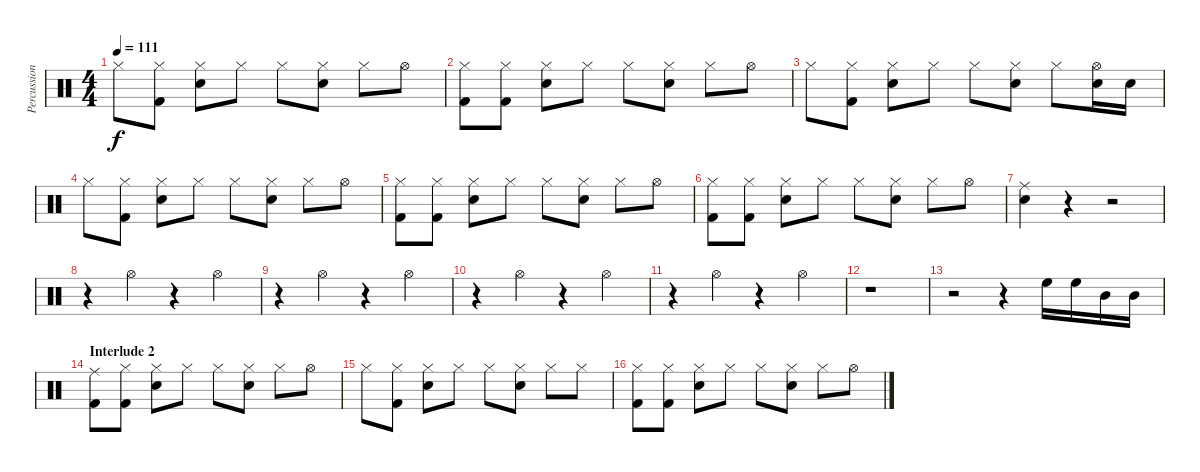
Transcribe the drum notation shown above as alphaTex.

\track ("Percussions" "Percussion") {instrument percussion}
\staff {score}
\articulation defaults
\ts (4 4)
\tempo 111
\clef neutral
\ks c "Hi-Hat (closed)".8{dy f}
("Hi-Hat (closed)" "Kick (hit) 2").8 ("Hi-Hat (closed)" "Snare (hit) 2").8 "Hi-Hat (closed)".8 "Hi-Hat (closed)".8 ("Hi-Hat (closed)" "Snare (hit) 2").8 "Hi-Hat (closed)".8 "Hi-Hat (open)".8 |
("Hi-Hat (closed)" "Kick (hit) 2").8 ("Hi-Hat (closed)" "Kick (hit) 2").8 ("Hi-Hat (closed)" "Snare (hit) 2").8 "Hi-Hat (closed)".8 "Hi-Hat (closed)".8 ("Hi-Hat (closed)" "Snare (hit) 2").8 "Hi-Hat (closed)".8 "Hi-Hat (open)".8 |
"Hi-Hat (closed)".8 ("Hi-Hat (closed)" "Kick (hit) 2").8 ("Hi-Hat (closed)" "Snare (hit) 2").8 "Hi-Hat (closed)".8 "Hi-Hat (closed)".8 ("Hi-Hat (closed)" "Snare (hit) 2").8 "Hi-Hat (closed)".8 ("Hi-Hat (open)" "Snare (hit) 2").16 "Snare (hit) 2".16 |
"Hi-Hat (closed)".8 ("Hi-Hat (closed)" "Kick (hit) 2").8 ("Hi-Hat (closed)" "Snare (hit) 2").8 "Hi-Hat (closed)".8 "Hi-Hat (closed)".8 ("Hi-Hat (closed)" "Snare (hit) 2").8 "Hi-Hat (closed)".8 "Hi-Hat (open)".8 |
("Hi-Hat (closed)" "Kick (hit) 2").8 ("Hi-Hat (closed)" "Kick (hit) 2").8 ("Hi-Hat (closed)" "Snare (hit) 2").8 "Hi-Hat (closed)".8 "Hi-Hat (closed)".8 ("Hi-Hat (closed)" "Snare (hit) 2").8 "Hi-Hat (closed)".8 "Hi-Hat (open)".8 |
("Hi-Hat (closed)" "Kick (hit) 2").8 ("Hi-Hat (closed)" "Kick (hit) 2").8 ("Hi-Hat (closed)" "Snare (hit) 2").8 "Hi-Hat (closed)".8 "Hi-Hat (closed)".8 ("Hi-Hat (closed)" "Snare (hit) 2").8 "Hi-Hat (closed)".8 "Hi-Hat (open)".8 |
("Ride (middle)" "Snare (hit) 2").4 r.4 r.2 |
r.4 "Hi-Hat (open)".4 r.4 "Hi-Hat (open)".4 |
r.4 "Hi-Hat (open)".4 r.4 "Hi-Hat (open)".4 |
r.4 "Hi-Hat (open)".4 r.4 "Hi-Hat (open)".4 |
r.4 "Hi-Hat (open)".4 r.4 "Hi-Hat (open)".4 |
r.1 |
r.2 r.4 "High Floor Tom (hit)".16 "High Floor Tom (hit)".16 "Mid Tom (hit)".16 "Mid Tom (hit)".16 |
\section ("" "Interlude 2")
("Ride (middle)" "Kick (hit) 2").8 ("Hi-Hat (closed)" "Kick (hit) 2").8 ("Hi-Hat (closed)" "Snare (hit) 2").8 "Hi-Hat (closed)".8 "Hi-Hat (closed)".8 ("Hi-Hat (closed)" "Snare (hit) 2").8 "Hi-Hat (closed)".8 "Hi-Hat (open)".8 |
"Hi-Hat (closed)".8 ("Hi-Hat (closed)" "Kick (hit) 2").8 ("Hi-Hat (closed)" "Snare (hit) 2").8 "Hi-Hat (closed)".8 "Hi-Hat (closed)".8 ("Hi-Hat (closed)" "Snare (hit) 2").8 "Hi-Hat (closed)".8 "Hi-Hat (closed)".8 |
("Hi-Hat (closed)" "Kick (hit) 2").8 ("Hi-Hat (closed)" "Kick (hit) 2").8 ("Hi-Hat (closed)" "Snare (hit) 2").8 "Hi-Hat (closed)".8 "Hi-Hat (closed)".8 ("Hi-Hat (closed)" "Snare (hit) 2").8 "Hi-Hat (closed)".8 "Hi-Hat (open)".8
